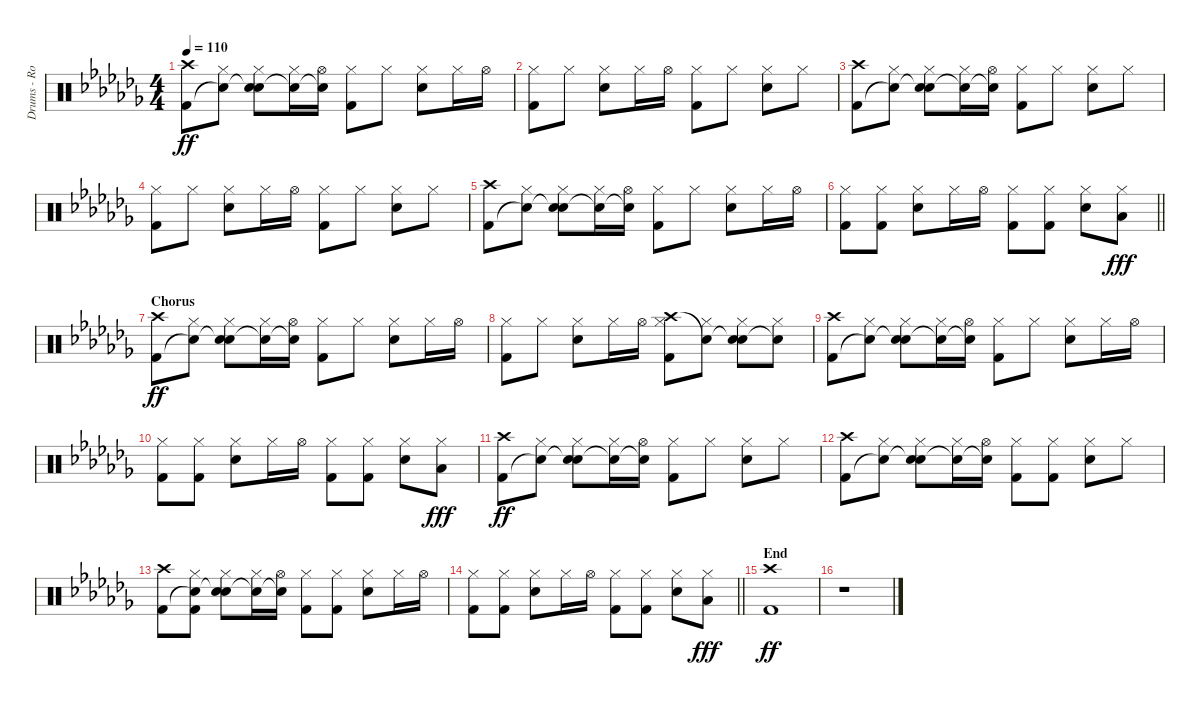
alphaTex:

\track ("Drums - Rob Bourdon" "Drums - Ro") {instrument percussion}
\staff {score}
\articulation defaults
\ts (4 4)
\tempo 110
\clef neutral
\ks abminor
("Crash high (hit)" "Kick (hit) 2").8{dy ff} ("Hi-Hat (closed)" "Snare (hit)"{t}).8 ("Hi-Hat (closed)" "Snare (hit)"{t} "Electric Snare (hit)").8 ("Hi-Hat (closed)" "Snare (hit)"{t}).16 ("Hi-Hat (open)" "Snare (hit)"{t}).16 ("Hi-Hat (closed)" "Kick (hit) 2").8 "Hi-Hat (closed)".8 ("Hi-Hat (closed)" "Electric Snare (hit)").8 "Hi-Hat (closed)".16 "Hi-Hat (open)".16 |
("Hi-Hat (closed)" "Kick (hit) 2").8 "Hi-Hat (closed)".8 ("Hi-Hat (closed)" "Electric Snare (hit)").8 "Hi-Hat (closed)".16 "Hi-Hat (open)".16 ("Hi-Hat (closed)" "Kick (hit) 2").8 "Hi-Hat (closed)".8 ("Hi-Hat (closed)" "Electric Snare (hit)").8 "Hi-Hat (closed)".8 |
("Crash high (hit)" "Kick (hit) 2").8 ("Hi-Hat (closed)" "Snare (hit)"{t}).8 ("Hi-Hat (closed)" "Snare (hit)"{t} "Electric Snare (hit)").8 ("Hi-Hat (closed)" "Snare (hit)"{t}).16 ("Hi-Hat (open)" "Snare (hit)"{t}).16 ("Hi-Hat (closed)" "Kick (hit) 2").8 "Hi-Hat (closed)".8 ("Hi-Hat (closed)" "Electric Snare (hit)").8 "Hi-Hat (closed)".8 |
("Hi-Hat (closed)" "Kick (hit) 2").8 "Hi-Hat (closed)".8 ("Hi-Hat (closed)" "Electric Snare (hit)").8 "Hi-Hat (closed)".16 "Hi-Hat (open)".16 ("Hi-Hat (closed)" "Kick (hit) 2").8 "Hi-Hat (closed)".8 ("Hi-Hat (closed)" "Electric Snare (hit)").8 "Hi-Hat (closed)".8 |
("Crash high (hit)" "Kick (hit) 2").8 ("Hi-Hat (closed)" "Snare (hit)"{t}).8 ("Hi-Hat (closed)" "Snare (hit)"{t} "Electric Snare (hit)").8 ("Hi-Hat (closed)" "Snare (hit)"{t}).16 ("Hi-Hat (open)" "Snare (hit)"{t}).16 ("Hi-Hat (closed)" "Kick (hit) 2").8 "Hi-Hat (closed)".8 ("Hi-Hat (closed)" "Electric Snare (hit)").8 "Hi-Hat (closed)".16 "Hi-Hat (open)".16 |
\barLineRight lightlight
("Hi-Hat (closed)" "Kick (hit) 2").8 ("Hi-Hat (closed)" "Kick (hit) 2").8 ("Hi-Hat (closed)" "Electric Snare (hit)").8 "Hi-Hat (closed)".16 "Hi-Hat (open)".16 ("Hi-Hat (closed)" "Kick (hit) 2").8 ("Hi-Hat (closed)" "Kick (hit) 2").8 ("Hi-Hat (closed)" "Electric Snare (hit)").8 ("Hi-Hat (closed)" "Low Tom (hit)").8{dy fff} |
\section ("" "Chorus")
("Crash high (hit)" "Kick (hit) 2").8{dy ff} ("Hi-Hat (closed)" "Snare (hit)"{t}).8 ("Hi-Hat (closed)" "Snare (hit)"{t} "Electric Snare (hit)").8 ("Hi-Hat (closed)" "Snare (hit)"{t}).16 ("Hi-Hat (open)" "Snare (hit)"{t}).16 ("Hi-Hat (closed)" "Kick (hit) 2").8 "Hi-Hat (closed)".8 ("Hi-Hat (closed)" "Electric Snare (hit)").8 "Hi-Hat (closed)".16 "Hi-Hat (open)".16 |
("Hi-Hat (closed)" "Kick (hit) 2").8 "Hi-Hat (closed)".8 ("Hi-Hat (closed)" "Electric Snare (hit)").8 "Hi-Hat (closed)".16 "Hi-Hat (open)".16 ("Hi-Hat (closed)" "Crash high (hit)" "Kick (hit) 2").8 ("Hi-Hat (closed)" "Snare (hit)"{t}).8 ("Hi-Hat (closed)" "Snare (hit)"{t} "Electric Snare (hit)").8 ("Hi-Hat (closed)" "Snare (hit)"{t}).8 |
("Crash high (hit)" "Kick (hit) 2").8 ("Hi-Hat (closed)" "Snare (hit)"{t}).8 ("Hi-Hat (closed)" "Snare (hit)"{t} "Electric Snare (hit)").8 ("Hi-Hat (closed)" "Snare (hit)"{t}).16 ("Hi-Hat (open)" "Snare (hit)"{t}).16 ("Hi-Hat (closed)" "Kick (hit) 2").8 "Hi-Hat (closed)".8 ("Hi-Hat (closed)" "Electric Snare (hit)").8 "Hi-Hat (closed)".16 "Hi-Hat (open)".16 |
("Hi-Hat (closed)" "Kick (hit) 2").8 ("Hi-Hat (closed)" "Kick (hit) 2").8 ("Hi-Hat (closed)" "Electric Snare (hit)").8 "Hi-Hat (closed)".16 "Hi-Hat (open)".16 ("Hi-Hat (closed)" "Kick (hit) 2").8 ("Hi-Hat (closed)" "Kick (hit) 2").8 ("Hi-Hat (closed)" "Electric Snare (hit)").8 ("Hi-Hat (closed)" "Low Tom (hit)").8{dy fff} |
("Crash high (hit)" "Kick (hit) 2").8{dy ff} ("Hi-Hat (closed)" "Snare (hit)"{t}).8 ("Hi-Hat (closed)" "Snare (hit)"{t} "Electric Snare (hit)").8 ("Hi-Hat (closed)" "Snare (hit)"{t}).16 ("Hi-Hat (open)" "Snare (hit)"{t}).16 ("Hi-Hat (closed)" "Kick (hit) 2").8 "Hi-Hat (closed)".8 ("Hi-Hat (closed)" "Electric Snare (hit)").8 "Hi-Hat (closed)".8 |
("Crash high (hit)" "Kick (hit) 2").8 ("Hi-Hat (closed)" "Snare (hit)"{t}).8 ("Hi-Hat (closed)" "Snare (hit)"{t} "Electric Snare (hit)").8 ("Hi-Hat (closed)" "Snare (hit)"{t}).16 ("Hi-Hat (open)" "Snare (hit)"{t}).16 ("Hi-Hat (closed)" "Kick (hit) 2").8 ("Hi-Hat (closed)" "Kick (hit) 2").8 ("Hi-Hat (closed)" "Electric Snare (hit)").8 "Hi-Hat (closed)".8 |
("Crash high (hit)" "Kick (hit) 2").8 ("Hi-Hat (closed)" "Snare (hit)"{t} "Kick (hit) 2").8 ("Hi-Hat (closed)" "Snare (hit)"{t} "Electric Snare (hit)").8 ("Hi-Hat (closed)" "Snare (hit)"{t}).16 ("Hi-Hat (open)" "Snare (hit)"{t}).16 ("Hi-Hat (closed)" "Kick (hit) 2").8 ("Hi-Hat (closed)" "Kick (hit) 2").8 ("Hi-Hat (closed)" "Electric Snare (hit)").8 "Hi-Hat (closed)".16 "Hi-Hat (open)".16 |
\barLineRight lightlight
("Hi-Hat (closed)" "Kick (hit) 2").8 ("Hi-Hat (closed)" "Kick (hit) 2").8 ("Hi-Hat (closed)" "Electric Snare (hit)").8 "Hi-Hat (closed)".16 "Hi-Hat (open)".16 ("Hi-Hat (closed)" "Kick (hit) 2").8 ("Hi-Hat (closed)" "Kick (hit) 2").8 ("Hi-Hat (closed)" "Electric Snare (hit)").8 ("Hi-Hat (closed)" "Low Tom (hit)").8{dy fff} |
\section ("" "End")
("Crash high (hit)" "Kick (hit) 2").1{dy ff} |
r.1
